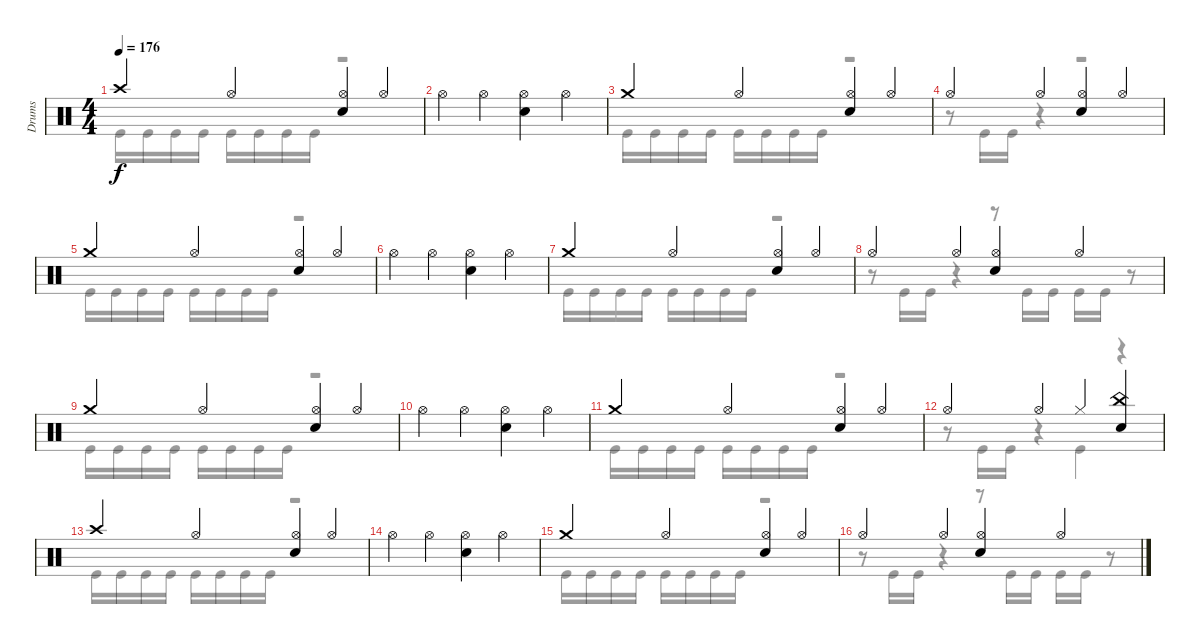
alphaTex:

\track ("Drums" "Drums") {instrument percussion}
\staff {score}
\articulation defaults
\voice
\ts (4 4)
\tempo 176
\clef neutral
\ks c "Crash high (hit)".4{dy f} "Hi-Hat (open)".4
("Hi-Hat (open)" "Snare (hit) 2").4 "Hi-Hat (open)".4 |
"Hi-Hat (open)".4 "Hi-Hat (open)".4 ("Hi-Hat (open)" "Snare (hit) 2").4 "Hi-Hat (open)".4 |
"Crash medium (hit)".4 "Hi-Hat (open)".4 ("Hi-Hat (open)" "Snare (hit) 2").4 "Hi-Hat (open)".4 |
"Hi-Hat (open)".4 "Hi-Hat (open)".4 ("Hi-Hat (open)" "Snare (hit) 2").4 "Hi-Hat (open)".4 |
"Crash medium (hit)".4 "Hi-Hat (open)".4 ("Hi-Hat (open)" "Snare (hit) 2").4 "Hi-Hat (open)".4 |
"Hi-Hat (open)".4 "Hi-Hat (open)".4 ("Hi-Hat (open)" "Snare (hit) 2").4 "Hi-Hat (open)".4 |
"Crash medium (hit)".4 "Hi-Hat (open)".4 ("Hi-Hat (open)" "Snare (hit) 2").4 "Hi-Hat (open)".4 |
"Hi-Hat (open)".4 "Hi-Hat (open)".4 ("Hi-Hat (open)" "Snare (hit) 2").4 "Hi-Hat (open)".4 |
"Crash medium (hit)".4 "Hi-Hat (open)".4 ("Hi-Hat (open)" "Snare (hit) 2").4 "Hi-Hat (open)".4 |
"Hi-Hat (open)".4 "Hi-Hat (open)".4 ("Hi-Hat (open)" "Snare (hit) 2").4 "Hi-Hat (open)".4 |
"Crash medium (hit)".4 "Hi-Hat (open)".4 ("Hi-Hat (open)" "Snare (hit) 2").4 "Hi-Hat (open)".4 |
"Hi-Hat (open)".4 "Hi-Hat (open)".4 "Hi-Hat (closed)".4 ("China (hit)" "Snare (hit) 2").4 |
"Crash high (hit)".4 "Hi-Hat (open)".4 ("Hi-Hat (open)" "Snare (hit) 2").4 "Hi-Hat (open)".4 |
"Hi-Hat (open)".4 "Hi-Hat (open)".4 ("Hi-Hat (open)" "Snare (hit) 2").4 "Hi-Hat (open)".4 |
"Crash medium (hit)".4 "Hi-Hat (open)".4 ("Hi-Hat (open)" "Snare (hit) 2").4 "Hi-Hat (open)".4 |
"Hi-Hat (open)".4 "Hi-Hat (open)".4 ("Hi-Hat (open)" "Snare (hit) 2").4 "Hi-Hat (open)".4
\voice
\clef neutral
\ottava regular
\simile none
\ks c "Kick (hit)".16{dy f} "Kick (hit)".16 "Kick (hit)".16 "Kick (hit)".16 "Kick (hit)".16 "Kick (hit)".16 "Kick (hit)".16 "Kick (hit)".16
r.2 |
|
"Kick (hit)".16 "Kick (hit)".16 "Kick (hit)".16 "Kick (hit)".16 "Kick (hit)".16 "Kick (hit)".16 "Kick (hit)".16 "Kick (hit)".16 r.2 |
r.8 "Kick (hit)".16 "Kick (hit)".16 r.4 r.2 |
"Kick (hit)".16 "Kick (hit)".16 "Kick (hit)".16 "Kick (hit)".16 "Kick (hit)".16 "Kick (hit)".16 "Kick (hit)".16 "Kick (hit)".16 r.2 |
|
"Kick (hit)".16 "Kick (hit)".16 "Kick (hit)".16 "Kick (hit)".16 "Kick (hit)".16 "Kick (hit)".16 "Kick (hit)".16 "Kick (hit)".16 r.2 |
r.8 "Kick (hit)".16 "Kick (hit)".16 r.4 r.8 "Kick (hit)".16 "Kick (hit)".16 "Kick (hit)".16 "Kick (hit)".16 r.8 |
"Kick (hit)".16 "Kick (hit)".16 "Kick (hit)".16 "Kick (hit)".16 "Kick (hit)".16 "Kick (hit)".16 "Kick (hit)".16 "Kick (hit)".16 r.2 |
|
"Kick (hit)".16 "Kick (hit)".16 "Kick (hit)".16 "Kick (hit)".16 "Kick (hit)".16 "Kick (hit)".16 "Kick (hit)".16 "Kick (hit)".16 r.2 |
r.8 "Kick (hit)".16 "Kick (hit)".16 r.4 "Kick (hit)".4 r.4 |
"Kick (hit)".16 "Kick (hit)".16 "Kick (hit)".16 "Kick (hit)".16 "Kick (hit)".16 "Kick (hit)".16 "Kick (hit)".16 "Kick (hit)".16 r.2 |
|
"Kick (hit)".16 "Kick (hit)".16 "Kick (hit)".16 "Kick (hit)".16 "Kick (hit)".16 "Kick (hit)".16 "Kick (hit)".16 "Kick (hit)".16 r.2 |
r.8 "Kick (hit)".16 "Kick (hit)".16 r.4 r.8 "Kick (hit)".16 "Kick (hit)".16 "Kick (hit)".16 "Kick (hit)".16 r.8
